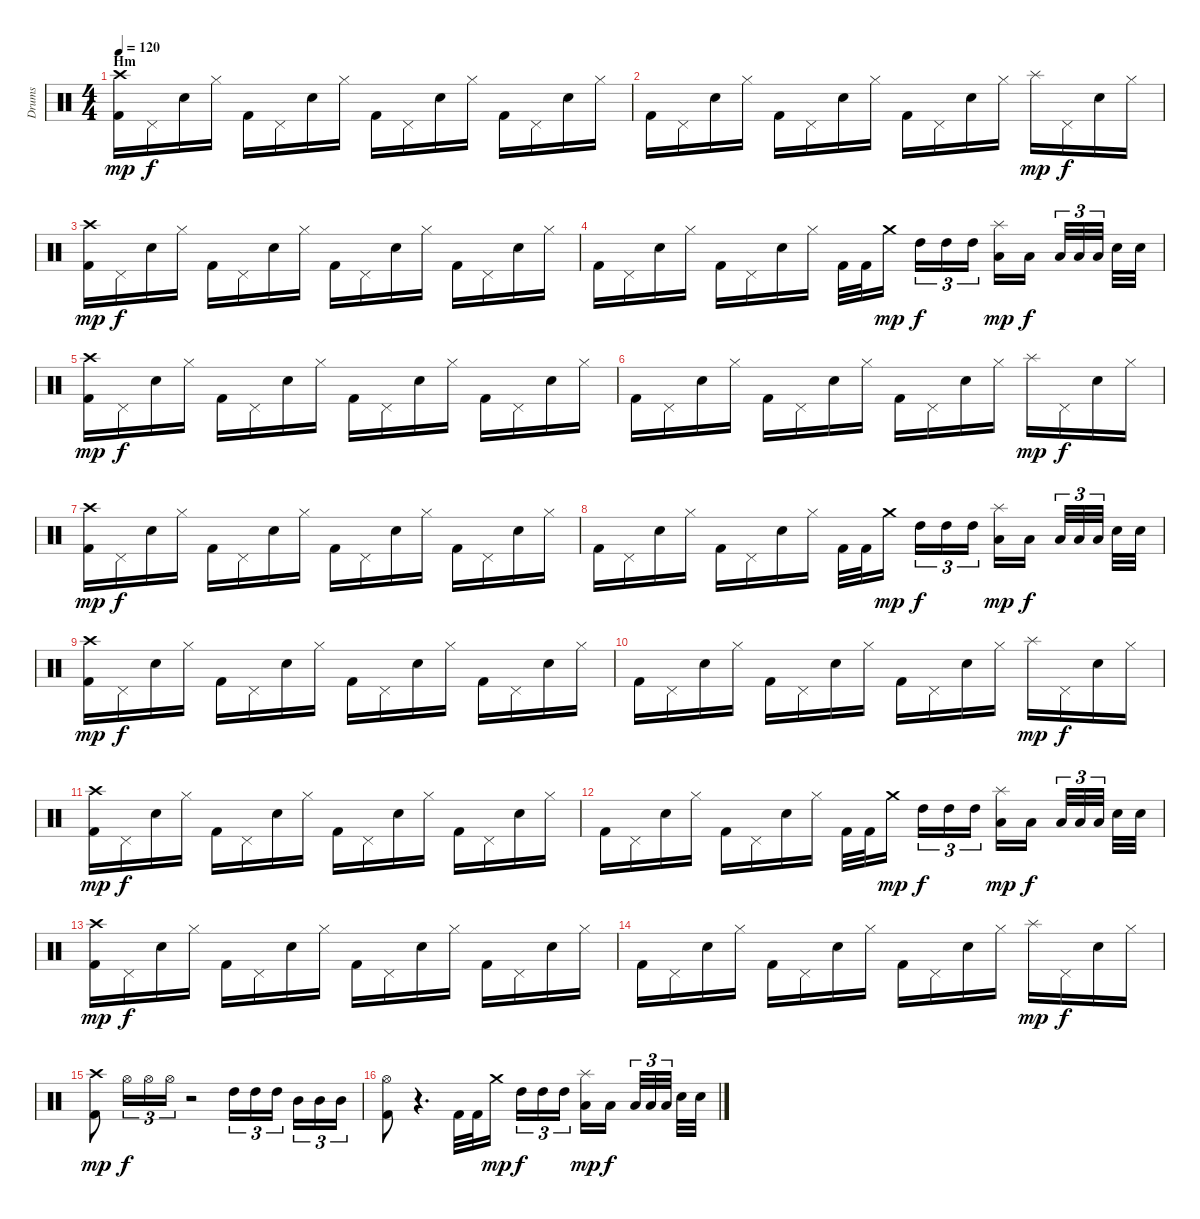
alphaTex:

\track ("Drums" "Drums") {instrument percussion}
\staff {score}
\articulation defaults
\ts (4 4)
\section ("" "Hm")
\tempo 120
\clef neutral
\ks c
("Kick (hit) 2" "Crash high (hit)").16{dy mp} "Pedal Hi-Hat (hit)".16{dy f} "Electric Snare (hit)".16 "Hi-Hat (closed)".16 "Kick (hit) 2".16 "Pedal Hi-Hat (hit)".16 "Electric Snare (hit)".16 "Hi-Hat (closed)".16 "Kick (hit) 2".16 "Pedal Hi-Hat (hit)".16 "Electric Snare (hit)".16 "Hi-Hat (closed)".16 "Kick (hit) 2".16 "Pedal Hi-Hat (hit)".16 "Electric Snare (hit)".16 "Hi-Hat (closed)".16 |
"Kick (hit) 2".16 "Pedal Hi-Hat (hit)".16 "Electric Snare (hit)".16 "Hi-Hat (closed)".16 "Kick (hit) 2".16 "Pedal Hi-Hat (hit)".16 "Electric Snare (hit)".16 "Hi-Hat (closed)".16 "Kick (hit) 2".16 "Pedal Hi-Hat (hit)".16 "Electric Snare (hit)".16 "Hi-Hat (closed)".16 "Splash (hit)".16{dy mp} "Pedal Hi-Hat (hit)".16{dy f} "Electric Snare (hit)".16 "Hi-Hat (closed)".16 |
("Kick (hit) 2" "Crash high (hit)").16{dy mp} "Pedal Hi-Hat (hit)".16{dy f} "Electric Snare (hit)".16 "Hi-Hat (closed)".16 "Kick (hit) 2".16 "Pedal Hi-Hat (hit)".16 "Electric Snare (hit)".16 "Hi-Hat (closed)".16 "Kick (hit) 2".16 "Pedal Hi-Hat (hit)".16 "Electric Snare (hit)".16 "Hi-Hat (closed)".16 "Kick (hit) 2".16 "Pedal Hi-Hat (hit)".16 "Electric Snare (hit)".16 "Hi-Hat (closed)".16 |
"Kick (hit) 2".16 "Pedal Hi-Hat (hit)".16 "Electric Snare (hit)".16 "Hi-Hat (closed)".16 "Kick (hit) 2".16 "Pedal Hi-Hat (hit)".16 "Electric Snare (hit)".16 "Hi-Hat (closed)".16 "Kick (hit) 2".32 "Kick (hit) 2".32 "Crash medium (hit)".16{dy mp} "High Tom (hit)".16{tu (3 2) dy f} "High Tom (hit)".16{tu (3 2)} "High Tom (hit)".16{tu (3 2)} ("Low Tom (hit)" "Splash (hit)").16{dy mp} "Low Tom (hit)".16{dy f} "Low Floor Tom (hit)".32{tu (3 2)} "Low Floor Tom (hit)".32{tu (3 2)} "Low Floor Tom (hit)".32{tu (3 2)} "Electric Snare (hit)".32 "Electric Snare (hit)".32 |
("Kick (hit) 2" "Crash high (hit)").16{dy mp} "Pedal Hi-Hat (hit)".16{dy f} "Electric Snare (hit)".16 "Hi-Hat (closed)".16 "Kick (hit) 2".16 "Pedal Hi-Hat (hit)".16 "Electric Snare (hit)".16 "Hi-Hat (closed)".16 "Kick (hit) 2".16 "Pedal Hi-Hat (hit)".16 "Electric Snare (hit)".16 "Hi-Hat (closed)".16 "Kick (hit) 2".16 "Pedal Hi-Hat (hit)".16 "Electric Snare (hit)".16 "Hi-Hat (closed)".16 |
"Kick (hit) 2".16 "Pedal Hi-Hat (hit)".16 "Electric Snare (hit)".16 "Hi-Hat (closed)".16 "Kick (hit) 2".16 "Pedal Hi-Hat (hit)".16 "Electric Snare (hit)".16 "Hi-Hat (closed)".16 "Kick (hit) 2".16 "Pedal Hi-Hat (hit)".16 "Electric Snare (hit)".16 "Hi-Hat (closed)".16 "Splash (hit)".16{dy mp} "Pedal Hi-Hat (hit)".16{dy f} "Electric Snare (hit)".16 "Hi-Hat (closed)".16 |
("Kick (hit) 2" "Crash high (hit)").16{dy mp} "Pedal Hi-Hat (hit)".16{dy f} "Electric Snare (hit)".16 "Hi-Hat (closed)".16 "Kick (hit) 2".16 "Pedal Hi-Hat (hit)".16 "Electric Snare (hit)".16 "Hi-Hat (closed)".16 "Kick (hit) 2".16 "Pedal Hi-Hat (hit)".16 "Electric Snare (hit)".16 "Hi-Hat (closed)".16 "Kick (hit) 2".16 "Pedal Hi-Hat (hit)".16 "Electric Snare (hit)".16 "Hi-Hat (closed)".16 |
"Kick (hit) 2".16 "Pedal Hi-Hat (hit)".16 "Electric Snare (hit)".16 "Hi-Hat (closed)".16 "Kick (hit) 2".16 "Pedal Hi-Hat (hit)".16 "Electric Snare (hit)".16 "Hi-Hat (closed)".16 "Kick (hit) 2".32 "Kick (hit) 2".32 "Crash medium (hit)".16{dy mp} "High Tom (hit)".16{tu (3 2) dy f} "High Tom (hit)".16{tu (3 2)} "High Tom (hit)".16{tu (3 2)} ("Low Tom (hit)" "Splash (hit)").16{dy mp} "Low Tom (hit)".16{dy f} "Low Floor Tom (hit)".32{tu (3 2)} "Low Floor Tom (hit)".32{tu (3 2)} "Low Floor Tom (hit)".32{tu (3 2)} "Electric Snare (hit)".32 "Electric Snare (hit)".32 |
("Kick (hit) 2" "Crash high (hit)").16{dy mp} "Pedal Hi-Hat (hit)".16{dy f} "Electric Snare (hit)".16 "Hi-Hat (closed)".16 "Kick (hit) 2".16 "Pedal Hi-Hat (hit)".16 "Electric Snare (hit)".16 "Hi-Hat (closed)".16 "Kick (hit) 2".16 "Pedal Hi-Hat (hit)".16 "Electric Snare (hit)".16 "Hi-Hat (closed)".16 "Kick (hit) 2".16 "Pedal Hi-Hat (hit)".16 "Electric Snare (hit)".16 "Hi-Hat (closed)".16 |
"Kick (hit) 2".16 "Pedal Hi-Hat (hit)".16 "Electric Snare (hit)".16 "Hi-Hat (closed)".16 "Kick (hit) 2".16 "Pedal Hi-Hat (hit)".16 "Electric Snare (hit)".16 "Hi-Hat (closed)".16 "Kick (hit) 2".16 "Pedal Hi-Hat (hit)".16 "Electric Snare (hit)".16 "Hi-Hat (closed)".16 "Splash (hit)".16{dy mp} "Pedal Hi-Hat (hit)".16{dy f} "Electric Snare (hit)".16 "Hi-Hat (closed)".16 |
("Kick (hit) 2" "Crash high (hit)").16{dy mp} "Pedal Hi-Hat (hit)".16{dy f} "Electric Snare (hit)".16 "Hi-Hat (closed)".16 "Kick (hit) 2".16 "Pedal Hi-Hat (hit)".16 "Electric Snare (hit)".16 "Hi-Hat (closed)".16 "Kick (hit) 2".16 "Pedal Hi-Hat (hit)".16 "Electric Snare (hit)".16 "Hi-Hat (closed)".16 "Kick (hit) 2".16 "Pedal Hi-Hat (hit)".16 "Electric Snare (hit)".16 "Hi-Hat (closed)".16 |
"Kick (hit) 2".16 "Pedal Hi-Hat (hit)".16 "Electric Snare (hit)".16 "Hi-Hat (closed)".16 "Kick (hit) 2".16 "Pedal Hi-Hat (hit)".16 "Electric Snare (hit)".16 "Hi-Hat (closed)".16 "Kick (hit) 2".32 "Kick (hit) 2".32 "Crash medium (hit)".16{dy mp} "High Tom (hit)".16{tu (3 2) dy f} "High Tom (hit)".16{tu (3 2)} "High Tom (hit)".16{tu (3 2)} ("Low Tom (hit)" "Splash (hit)").16{dy mp} "Low Tom (hit)".16{dy f} "Low Floor Tom (hit)".32{tu (3 2)} "Low Floor Tom (hit)".32{tu (3 2)} "Low Floor Tom (hit)".32{tu (3 2)} "Electric Snare (hit)".32 "Electric Snare (hit)".32 |
("Kick (hit) 2" "Crash high (hit)").16{dy mp} "Pedal Hi-Hat (hit)".16{dy f} "Electric Snare (hit)".16 "Hi-Hat (closed)".16 "Kick (hit) 2".16 "Pedal Hi-Hat (hit)".16 "Electric Snare (hit)".16 "Hi-Hat (closed)".16 "Kick (hit) 2".16 "Pedal Hi-Hat (hit)".16 "Electric Snare (hit)".16 "Hi-Hat (closed)".16 "Kick (hit) 2".16 "Pedal Hi-Hat (hit)".16 "Electric Snare (hit)".16 "Hi-Hat (closed)".16 |
"Kick (hit) 2".16 "Pedal Hi-Hat (hit)".16 "Electric Snare (hit)".16 "Hi-Hat (closed)".16 "Kick (hit) 2".16 "Pedal Hi-Hat (hit)".16 "Electric Snare (hit)".16 "Hi-Hat (closed)".16 "Kick (hit) 2".16 "Pedal Hi-Hat (hit)".16 "Electric Snare (hit)".16 "Hi-Hat (closed)".16 "Splash (hit)".16{dy mp} "Pedal Hi-Hat (hit)".16{dy f} "Electric Snare (hit)".16 "Hi-Hat (closed)".16 |
("Kick (hit) 2" "Crash high (hit)").8{dy mp} "Hi-Hat (open)".16{tu (3 2) dy f} "Hi-Hat (open)".16{tu (3 2)} "Hi-Hat (open)".16{tu (3 2)} r.2 "High Tom (hit)".16{tu (3 2)} "High Tom (hit)".16{tu (3 2)} "High Tom (hit)".16{tu (3 2)} "Mid Tom (hit)".16{tu (3 2)} "Mid Tom (hit)".16{tu (3 2)} "Mid Tom (hit)".16{tu (3 2)} |
("Hi-Hat (open)" "Kick (hit) 2").8 r.4{d} "Kick (hit) 2".32 "Kick (hit) 2".32 "Crash medium (hit)".16{dy mp} "High Tom (hit)".16{tu (3 2) dy f} "High Tom (hit)".16{tu (3 2)} "High Tom (hit)".16{tu (3 2)} ("Low Tom (hit)" "Splash (hit)").16{dy mp} "Low Tom (hit)".16{dy f} "Low Floor Tom (hit)".32{tu (3 2)} "Low Floor Tom (hit)".32{tu (3 2)} "Low Floor Tom (hit)".32{tu (3 2)} "Electric Snare (hit)".32 "Electric Snare (hit)".32
